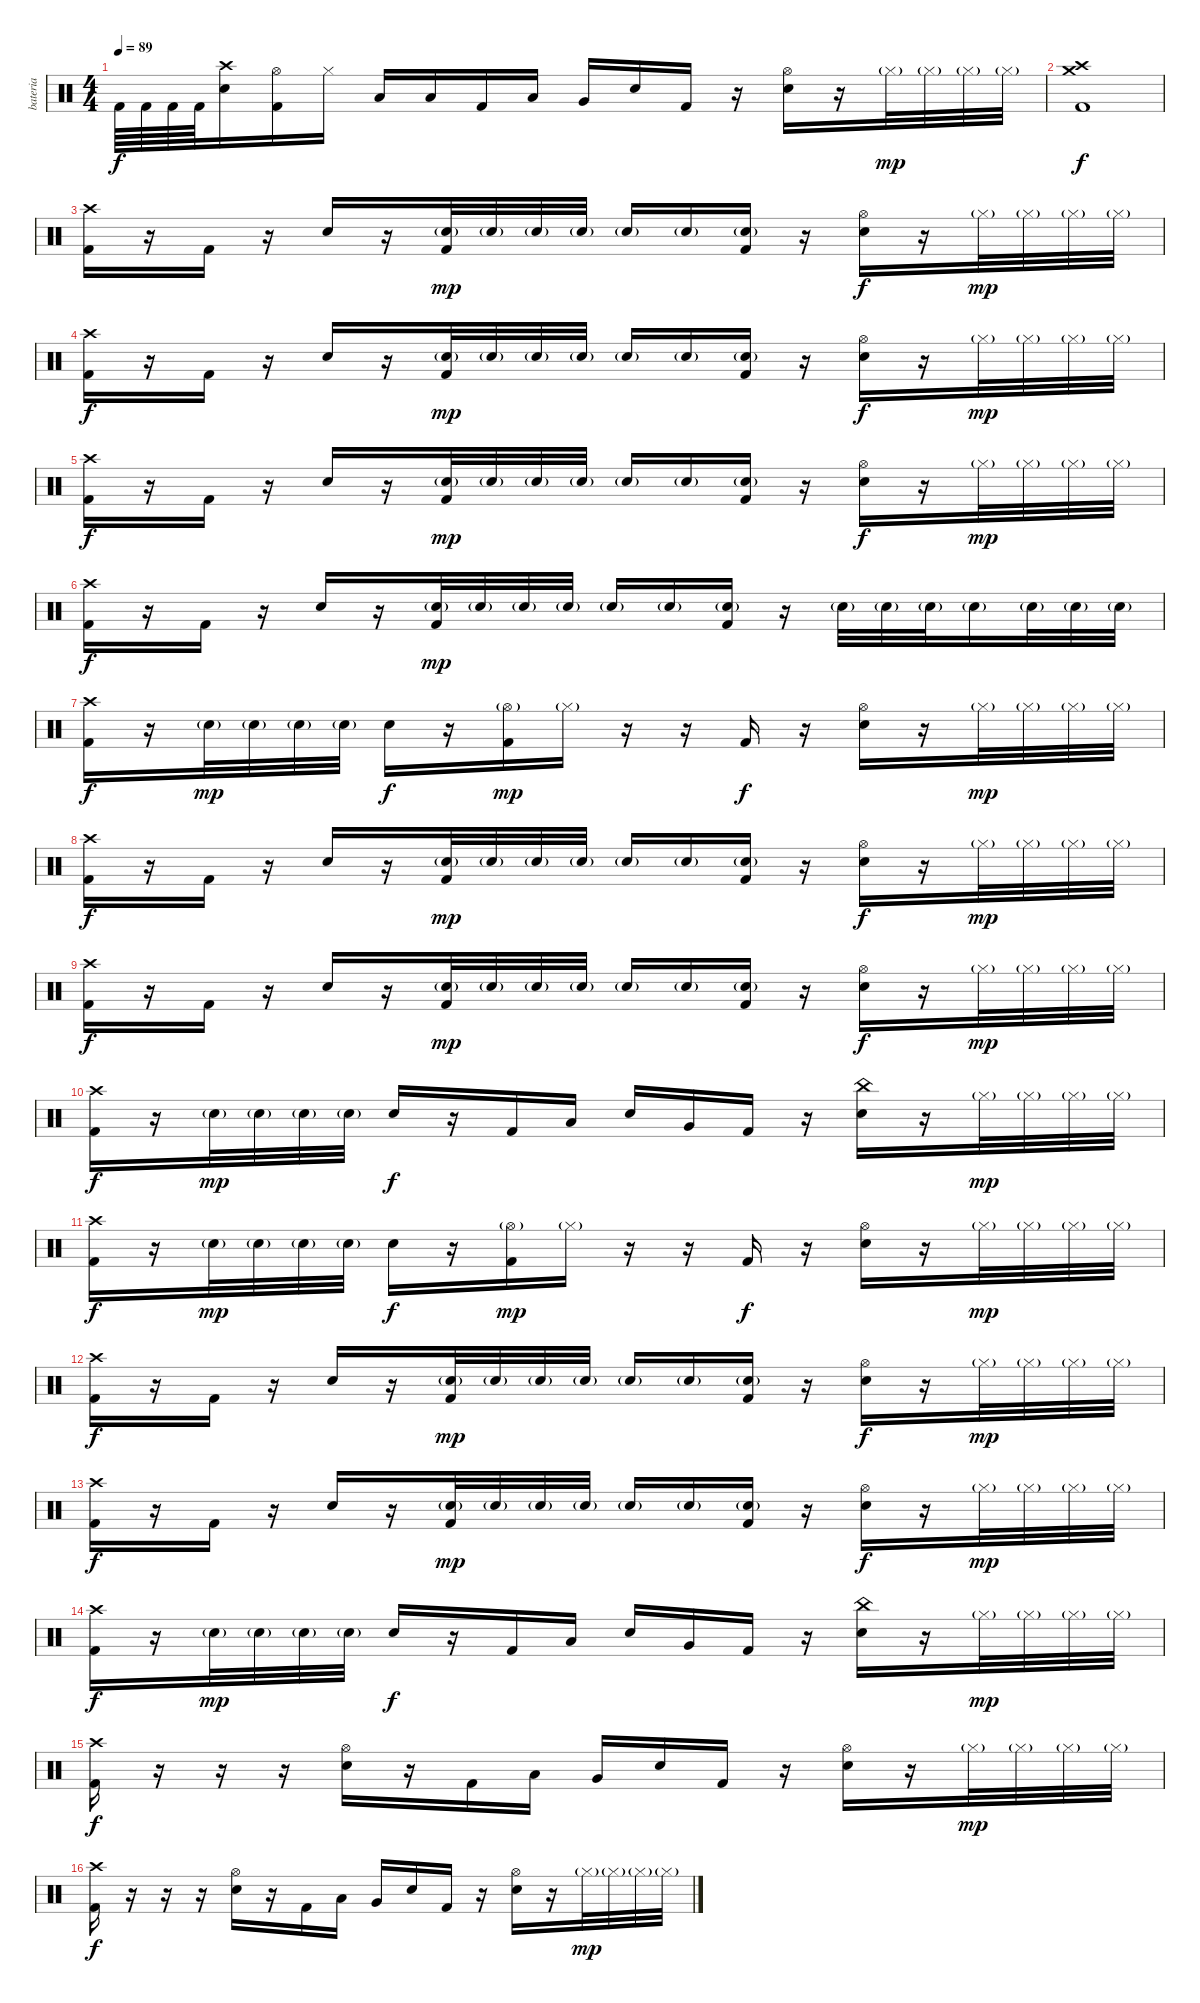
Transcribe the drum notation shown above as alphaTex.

\track ("bateria" "bateria") {instrument percussion}
\staff {score}
\articulation defaults
\ts (4 4)
\tempo 89
\clef neutral
\ks c "Kick (hit) 2".64{dy f} "Kick (hit) 2".64 "Kick (hit) 2".64 "Kick (hit) 2".64
("Crash high (hit)" "Electric Snare (hit)").16 ("Hi-Hat (open)" "Kick (hit) 2").16 "Hi-Hat (closed)".16 "Low Tom (hit)".16 "Low Floor Tom (hit)".16 "Kick (hit) 2".16 "Low Tom (hit)".16 "Very Low Tom (hit)".16 "Electric Snare (hit)".16 "Kick (hit) 2".16 r.16 ("Hi-Hat (open)" "Electric Snare (hit)").16 r.16 "Hi-Hat (closed)"{g}.32{dy mp} "Hi-Hat (closed)"{g}.32 "Hi-Hat (closed)"{g}.32 "Hi-Hat (closed)"{g}.32 |
("Crash high (hit)" "Crash medium (hit)" "Kick (hit) 2").1{dy f} |
("Crash high (hit)" "Kick (hit) 2").16 r.16 "Kick (hit) 2".16 r.16 "Electric Snare (hit)".16 r.16 ("Electric Snare (hit)"{g} "Kick (hit) 2").32{dy mp} "Electric Snare (hit)"{g}.32 "Electric Snare (hit)"{g}.32 "Electric Snare (hit)"{g}.32 "Electric Snare (hit)"{g}.16 "Electric Snare (hit)"{g}.16 ("Electric Snare (hit)"{g} "Kick (hit) 2").16 r.16 ("Hi-Hat (open)" "Electric Snare (hit)").16{dy f} r.16 "Hi-Hat (closed)"{g}.32{dy mp} "Hi-Hat (closed)"{g}.32 "Hi-Hat (closed)"{g}.32 "Hi-Hat (closed)"{g}.32 |
("Crash high (hit)" "Kick (hit) 2").16{dy f} r.16 "Kick (hit) 2".16 r.16 "Electric Snare (hit)".16 r.16 ("Electric Snare (hit)"{g} "Kick (hit) 2").32{dy mp} "Electric Snare (hit)"{g}.32 "Electric Snare (hit)"{g}.32 "Electric Snare (hit)"{g}.32 "Electric Snare (hit)"{g}.16 "Electric Snare (hit)"{g}.16 ("Electric Snare (hit)"{g} "Kick (hit) 2").16 r.16 ("Hi-Hat (open)" "Electric Snare (hit)").16{dy f} r.16 "Hi-Hat (closed)"{g}.32{dy mp} "Hi-Hat (closed)"{g}.32 "Hi-Hat (closed)"{g}.32 "Hi-Hat (closed)"{g}.32 |
("Crash high (hit)" "Kick (hit) 2").16{dy f} r.16 "Kick (hit) 2".16 r.16 "Electric Snare (hit)".16 r.16 ("Electric Snare (hit)"{g} "Kick (hit) 2").32{dy mp} "Electric Snare (hit)"{g}.32 "Electric Snare (hit)"{g}.32 "Electric Snare (hit)"{g}.32 "Electric Snare (hit)"{g}.16 "Electric Snare (hit)"{g}.16 ("Electric Snare (hit)"{g} "Kick (hit) 2").16 r.16 ("Hi-Hat (open)" "Electric Snare (hit)").16{dy f} r.16 "Hi-Hat (closed)"{g}.32{dy mp} "Hi-Hat (closed)"{g}.32 "Hi-Hat (closed)"{g}.32 "Hi-Hat (closed)"{g}.32 |
("Crash high (hit)" "Kick (hit) 2").16{dy f} r.16 "Kick (hit) 2".16 r.16 "Electric Snare (hit)".16 r.16 ("Electric Snare (hit)"{g} "Kick (hit) 2").32{dy mp} "Electric Snare (hit)"{g}.32 "Electric Snare (hit)"{g}.32 "Electric Snare (hit)"{g}.32 "Electric Snare (hit)"{g}.16 "Electric Snare (hit)"{g}.16 ("Electric Snare (hit)"{g} "Kick (hit) 2").16 r.16 "Electric Snare (hit)"{g}.32 "Electric Snare (hit)"{g}.32 "Electric Snare (hit)"{g}.32 "Electric Snare (hit)"{g}.16 "Electric Snare (hit)"{g}.32 "Electric Snare (hit)"{g}.32 "Electric Snare (hit)"{g}.32 |
("Crash high (hit)" "Kick (hit) 2").16{dy f} r.16 "Electric Snare (hit)"{g}.32{dy mp} "Electric Snare (hit)"{g}.32 "Electric Snare (hit)"{g}.32 "Electric Snare (hit)"{g}.32 "Electric Snare (hit)".16{dy f} r.16 ("Hi-Hat (open)"{g} "Kick (hit) 2").16{dy mp} "Hi-Hat (closed)"{g}.16 r.16 r.16 "Kick (hit) 2".16{dy f} r.16 ("Hi-Hat (open)" "Electric Snare (hit)").16 r.16 "Hi-Hat (closed)"{g}.32{dy mp} "Hi-Hat (closed)"{g}.32 "Hi-Hat (closed)"{g}.32 "Hi-Hat (closed)"{g}.32 |
("Crash high (hit)" "Kick (hit) 2").16{dy f} r.16 "Kick (hit) 2".16 r.16 "Electric Snare (hit)".16 r.16 ("Electric Snare (hit)"{g} "Kick (hit) 2").32{dy mp} "Electric Snare (hit)"{g}.32 "Electric Snare (hit)"{g}.32 "Electric Snare (hit)"{g}.32 "Electric Snare (hit)"{g}.16 "Electric Snare (hit)"{g}.16 ("Electric Snare (hit)"{g} "Kick (hit) 2").16 r.16 ("Hi-Hat (open)" "Electric Snare (hit)").16{dy f} r.16 "Hi-Hat (closed)"{g}.32{dy mp} "Hi-Hat (closed)"{g}.32 "Hi-Hat (closed)"{g}.32 "Hi-Hat (closed)"{g}.32 |
("Crash high (hit)" "Kick (hit) 2").16{dy f} r.16 "Kick (hit) 2".16 r.16 "Electric Snare (hit)".16 r.16 ("Electric Snare (hit)"{g} "Kick (hit) 2").32{dy mp} "Electric Snare (hit)"{g}.32 "Electric Snare (hit)"{g}.32 "Electric Snare (hit)"{g}.32 "Electric Snare (hit)"{g}.16 "Electric Snare (hit)"{g}.16 ("Electric Snare (hit)"{g} "Kick (hit) 2").16 r.16 ("Hi-Hat (open)" "Electric Snare (hit)").16{dy f} r.16 "Hi-Hat (closed)"{g}.32{dy mp} "Hi-Hat (closed)"{g}.32 "Hi-Hat (closed)"{g}.32 "Hi-Hat (closed)"{g}.32 |
("Crash high (hit)" "Kick (hit) 2").16{dy f} r.16 "Electric Snare (hit)"{g}.32{dy mp} "Electric Snare (hit)"{g}.32 "Electric Snare (hit)"{g}.32 "Electric Snare (hit)"{g}.32 "Electric Snare (hit)".16{dy f} r.16 "Kick (hit) 2".16 "Low Tom (hit)".16 "Electric Snare (hit)".16 "Very Low Tom (hit)".16 "Kick (hit) 2".16 r.16 ("China (hit)" "Electric Snare (hit)").16 r.16 "Hi-Hat (closed)"{g}.32{dy mp} "Hi-Hat (closed)"{g}.32 "Hi-Hat (closed)"{g}.32 "Hi-Hat (closed)"{g}.32 |
("Crash high (hit)" "Kick (hit) 2").16{dy f} r.16 "Electric Snare (hit)"{g}.32{dy mp} "Electric Snare (hit)"{g}.32 "Electric Snare (hit)"{g}.32 "Electric Snare (hit)"{g}.32 "Electric Snare (hit)".16{dy f} r.16 ("Hi-Hat (open)"{g} "Kick (hit) 2").16{dy mp} "Hi-Hat (closed)"{g}.16 r.16 r.16 "Kick (hit) 2".16{dy f} r.16 ("Hi-Hat (open)" "Electric Snare (hit)").16 r.16 "Hi-Hat (closed)"{g}.32{dy mp} "Hi-Hat (closed)"{g}.32 "Hi-Hat (closed)"{g}.32 "Hi-Hat (closed)"{g}.32 |
("Crash high (hit)" "Kick (hit) 2").16{dy f} r.16 "Kick (hit) 2".16 r.16 "Electric Snare (hit)".16 r.16 ("Electric Snare (hit)"{g} "Kick (hit) 2").32{dy mp} "Electric Snare (hit)"{g}.32 "Electric Snare (hit)"{g}.32 "Electric Snare (hit)"{g}.32 "Electric Snare (hit)"{g}.16 "Electric Snare (hit)"{g}.16 ("Electric Snare (hit)"{g} "Kick (hit) 2").16 r.16 ("Hi-Hat (open)" "Electric Snare (hit)").16{dy f} r.16 "Hi-Hat (closed)"{g}.32{dy mp} "Hi-Hat (closed)"{g}.32 "Hi-Hat (closed)"{g}.32 "Hi-Hat (closed)"{g}.32 |
("Crash high (hit)" "Kick (hit) 2").16{dy f} r.16 "Kick (hit) 2".16 r.16 "Electric Snare (hit)".16 r.16 ("Electric Snare (hit)"{g} "Kick (hit) 2").32{dy mp} "Electric Snare (hit)"{g}.32 "Electric Snare (hit)"{g}.32 "Electric Snare (hit)"{g}.32 "Electric Snare (hit)"{g}.16 "Electric Snare (hit)"{g}.16 ("Electric Snare (hit)"{g} "Kick (hit) 2").16 r.16 ("Hi-Hat (open)" "Electric Snare (hit)").16{dy f} r.16 "Hi-Hat (closed)"{g}.32{dy mp} "Hi-Hat (closed)"{g}.32 "Hi-Hat (closed)"{g}.32 "Hi-Hat (closed)"{g}.32 |
("Crash high (hit)" "Kick (hit) 2").16{dy f} r.16 "Electric Snare (hit)"{g}.32{dy mp} "Electric Snare (hit)"{g}.32 "Electric Snare (hit)"{g}.32 "Electric Snare (hit)"{g}.32 "Electric Snare (hit)".16{dy f} r.16 "Kick (hit) 2".16 "Low Tom (hit)".16 "Electric Snare (hit)".16 "Very Low Tom (hit)".16 "Kick (hit) 2".16 r.16 ("China (hit)" "Electric Snare (hit)").16 r.16 "Hi-Hat (closed)"{g}.32{dy mp} "Hi-Hat (closed)"{g}.32 "Hi-Hat (closed)"{g}.32 "Hi-Hat (closed)"{g}.32 |
("Crash high (hit)" "Kick (hit) 2").16{dy f} r.16 r.16 r.16 ("Hi-Hat (open)" "Electric Snare (hit)").16 r.16 "Kick (hit) 2".16 "Low Tom (hit)".16 "Very Low Tom (hit)".16 "Electric Snare (hit)".16 "Kick (hit) 2".16 r.16 ("Hi-Hat (open)" "Electric Snare (hit)").16 r.16 "Hi-Hat (closed)"{g}.32{dy mp} "Hi-Hat (closed)"{g}.32 "Hi-Hat (closed)"{g}.32 "Hi-Hat (closed)"{g}.32 |
("Crash high (hit)" "Kick (hit) 2").16{dy f} r.16 r.16 r.16 ("Hi-Hat (open)" "Electric Snare (hit)").16 r.16 "Kick (hit) 2".16 "Low Tom (hit)".16 "Very Low Tom (hit)".16 "Electric Snare (hit)".16 "Kick (hit) 2".16 r.16 ("Hi-Hat (open)" "Electric Snare (hit)").16 r.16 "Hi-Hat (closed)"{g}.32{dy mp} "Hi-Hat (closed)"{g}.32 "Hi-Hat (closed)"{g}.32 "Hi-Hat (closed)"{g}.32
